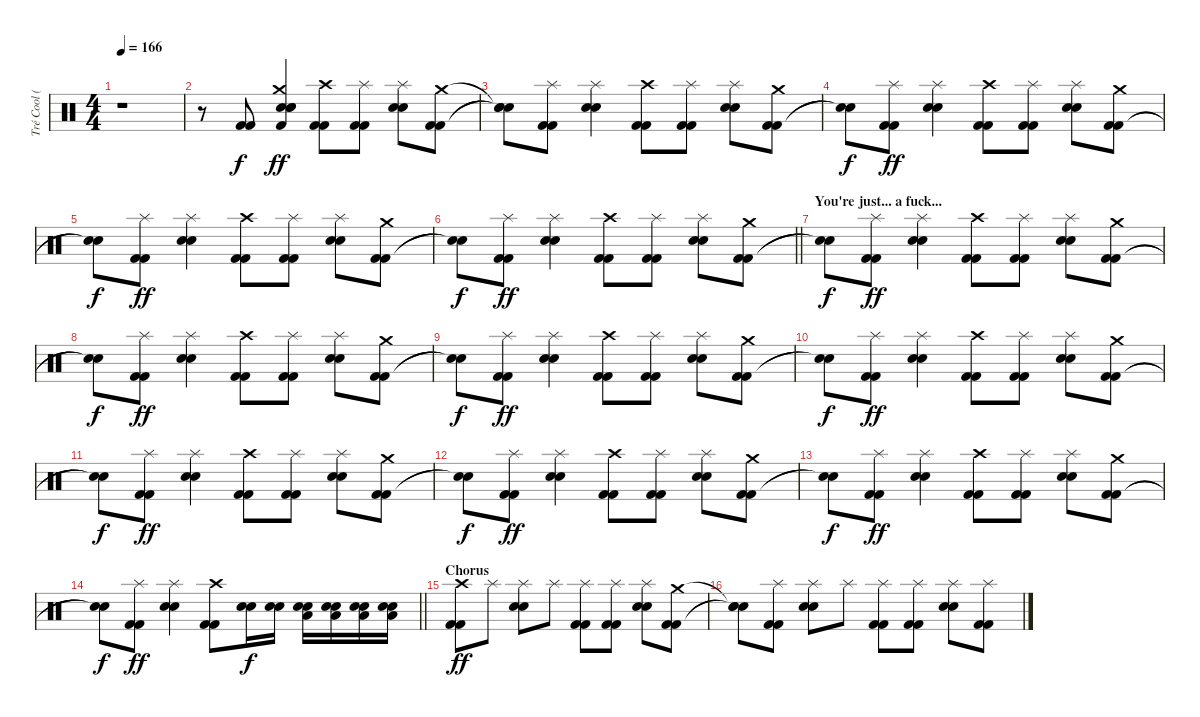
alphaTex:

\track ("Tré Cool (Drums)" "Tré Cool (") {instrument percussion}
\staff {score}
\articulation defaults
\ts (4 4)
\tempo 166
\clef neutral
\ks c
r.1{dy f} |
r.8 ("Kick (hit) 2" "Kick (hit) 2").8 ("Snare (hit) 2" "Snare (hit) 2" "Kick (hit) 2" "Crash medium (hit)" "Metronome (bell)").4{dy ff} ("Kick (hit) 2" "Kick (hit) 2" "Crash high (hit)").8 ("Kick (hit) 2" "Kick (hit) 2" "Splash (hit)").8 ("Snare (hit) 2" "Snare (hit) 2" "Splash (hit)").8 ("Kick (hit) 2" "Kick (hit) 2" "Crash medium (hit)").8 |
("Snare (hit)"{t} "Snare (hit)"{t} "Snare (hit)"{t}).8 ("Kick (hit) 2" "Kick (hit) 2" "Splash (hit)").8 ("Snare (hit) 2" "Snare (hit) 2" "Splash (hit)").4 ("Kick (hit) 2" "Kick (hit) 2" "Crash high (hit)").8 ("Kick (hit) 2" "Kick (hit) 2" "Splash (hit)").8 ("Snare (hit) 2" "Snare (hit) 2" "Splash (hit)").8 ("Kick (hit) 2" "Kick (hit) 2" "Crash medium (hit)").8 |
("Snare (hit)"{t} "Snare (hit)"{t}).8{dy f} ("Kick (hit) 2" "Kick (hit) 2" "Splash (hit)").8{dy ff} ("Snare (hit) 2" "Snare (hit) 2" "Splash (hit)").4 ("Kick (hit) 2" "Kick (hit) 2" "Crash high (hit)").8 ("Kick (hit) 2" "Kick (hit) 2" "Splash (hit)").8 ("Snare (hit) 2" "Snare (hit) 2" "Splash (hit)").8 ("Kick (hit) 2" "Kick (hit) 2" "Crash medium (hit)").8 |
("Snare (hit)"{t} "Snare (hit)"{t}).8{dy f} ("Kick (hit) 2" "Kick (hit) 2" "Splash (hit)").8{dy ff} ("Snare (hit) 2" "Snare (hit) 2" "Splash (hit)").4 ("Kick (hit) 2" "Kick (hit) 2" "Crash high (hit)").8 ("Kick (hit) 2" "Kick (hit) 2" "Splash (hit)").8 ("Snare (hit) 2" "Snare (hit) 2" "Splash (hit)").8 ("Kick (hit) 2" "Kick (hit) 2" "Crash medium (hit)").8 |
\barLineRight lightlight
("Snare (hit)"{t} "Snare (hit)"{t}).8{dy f} ("Kick (hit) 2" "Kick (hit) 2" "Splash (hit)").8{dy ff} ("Snare (hit) 2" "Snare (hit) 2" "Splash (hit)").4 ("Kick (hit) 2" "Kick (hit) 2" "Crash high (hit)").8 ("Kick (hit) 2" "Kick (hit) 2" "Splash (hit)").8 ("Snare (hit) 2" "Snare (hit) 2" "Splash (hit)").8 ("Kick (hit) 2" "Kick (hit) 2" "Crash medium (hit)").8 |
\section ("" "You're just... a fuck...")
("Snare (hit)"{t} "Snare (hit)"{t}).8{dy f} ("Kick (hit) 2" "Kick (hit) 2" "Splash (hit)").8{dy ff} ("Snare (hit) 2" "Snare (hit) 2" "Splash (hit)").4 ("Kick (hit) 2" "Kick (hit) 2" "Crash high (hit)").8 ("Kick (hit) 2" "Kick (hit) 2" "Splash (hit)").8 ("Snare (hit) 2" "Snare (hit) 2" "Splash (hit)").8 ("Kick (hit) 2" "Kick (hit) 2" "Crash medium (hit)").8 |
("Snare (hit)"{t} "Snare (hit)"{t}).8{dy f} ("Kick (hit) 2" "Kick (hit) 2" "Splash (hit)").8{dy ff} ("Snare (hit) 2" "Snare (hit) 2" "Splash (hit)").4 ("Kick (hit) 2" "Kick (hit) 2" "Crash high (hit)").8 ("Kick (hit) 2" "Kick (hit) 2" "Splash (hit)").8 ("Snare (hit) 2" "Snare (hit) 2" "Splash (hit)").8 ("Kick (hit) 2" "Kick (hit) 2" "Crash medium (hit)").8 |
("Snare (hit)"{t} "Snare (hit)"{t}).8{dy f} ("Kick (hit) 2" "Kick (hit) 2" "Splash (hit)").8{dy ff} ("Snare (hit) 2" "Snare (hit) 2" "Splash (hit)").4 ("Kick (hit) 2" "Kick (hit) 2" "Crash high (hit)").8 ("Kick (hit) 2" "Kick (hit) 2" "Splash (hit)").8 ("Snare (hit) 2" "Snare (hit) 2" "Splash (hit)").8 ("Kick (hit) 2" "Kick (hit) 2" "Crash medium (hit)").8 |
("Snare (hit)"{t} "Snare (hit)"{t}).8{dy f} ("Kick (hit) 2" "Kick (hit) 2" "Splash (hit)").8{dy ff} ("Snare (hit) 2" "Snare (hit) 2" "Splash (hit)").4 ("Kick (hit) 2" "Kick (hit) 2" "Crash high (hit)").8 ("Kick (hit) 2" "Kick (hit) 2" "Splash (hit)").8 ("Snare (hit) 2" "Snare (hit) 2" "Splash (hit)").8 ("Kick (hit) 2" "Kick (hit) 2" "Crash medium (hit)").8 |
("Snare (hit)"{t} "Snare (hit)"{t}).8{dy f} ("Kick (hit) 2" "Kick (hit) 2" "Splash (hit)").8{dy ff} ("Snare (hit) 2" "Snare (hit) 2" "Splash (hit)").4 ("Kick (hit) 2" "Kick (hit) 2" "Crash high (hit)").8 ("Kick (hit) 2" "Kick (hit) 2" "Splash (hit)").8 ("Snare (hit) 2" "Snare (hit) 2" "Splash (hit)").8 ("Kick (hit) 2" "Kick (hit) 2" "Crash medium (hit)").8 |
("Snare (hit)"{t} "Snare (hit)"{t}).8{dy f} ("Kick (hit) 2" "Kick (hit) 2" "Splash (hit)").8{dy ff} ("Snare (hit) 2" "Snare (hit) 2" "Splash (hit)").4 ("Kick (hit) 2" "Kick (hit) 2" "Crash high (hit)").8 ("Kick (hit) 2" "Kick (hit) 2" "Splash (hit)").8 ("Snare (hit) 2" "Snare (hit) 2" "Splash (hit)").8 ("Kick (hit) 2" "Kick (hit) 2" "Crash medium (hit)").8 |
("Snare (hit)"{t} "Snare (hit)"{t}).8{dy f} ("Kick (hit) 2" "Kick (hit) 2" "Splash (hit)").8{dy ff} ("Snare (hit) 2" "Snare (hit) 2" "Splash (hit)").4 ("Kick (hit) 2" "Kick (hit) 2" "Crash high (hit)").8 ("Kick (hit) 2" "Kick (hit) 2" "Splash (hit)").8 ("Snare (hit) 2" "Snare (hit) 2" "Splash (hit)").8 ("Kick (hit) 2" "Kick (hit) 2" "Crash medium (hit)").8 |
\barLineRight lightlight
("Snare (hit)"{t} "Snare (hit)"{t}).8{dy f} ("Kick (hit) 2" "Kick (hit) 2" "Splash (hit)").8{dy ff} ("Snare (hit) 2" "Snare (hit) 2" "Splash (hit)").4 ("Kick (hit) 2" "Kick (hit) 2" "Crash high (hit)").8 ("Snare (hit) 2" "Snare (hit) 2").16{dy f} ("Snare (hit) 2" "Snare (hit) 2").16 ("Snare (hit) 2" "Snare (hit) 2" "Low Floor Tom (hit)").16 ("Snare (hit) 2" "Snare (hit) 2" "Low Floor Tom (hit)").16 ("Snare (hit) 2" "Snare (hit) 2" "Low Floor Tom (hit)").16 ("Snare (hit) 2" "Snare (hit) 2" "Low Floor Tom (hit)").16 |
\section ("" "Chorus")
("Kick (hit) 2" "Kick (hit) 2" "Crash high (hit)").8{dy ff} "Splash (hit)".8 ("Snare (hit) 2" "Snare (hit) 2" "Splash (hit)").8 "Splash (hit)".8 ("Kick (hit) 2" "Kick (hit) 2" "Splash (hit)").8 ("Kick (hit) 2" "Kick (hit) 2" "Splash (hit)").8 ("Snare (hit) 2" "Snare (hit) 2" "Splash (hit)").8 ("Kick (hit) 2" "Kick (hit) 2" "Crash medium (hit)").8 |
("Snare (hit)"{t} "Snare (hit)"{t} "Snare (hit)"{t}).8 ("Kick (hit) 2" "Kick (hit) 2" "Splash (hit)").8 ("Snare (hit) 2" "Snare (hit) 2" "Splash (hit)").8 "Splash (hit)".8 ("Kick (hit) 2" "Kick (hit) 2" "Splash (hit)").8 ("Kick (hit) 2" "Kick (hit) 2" "Splash (hit)").8 ("Snare (hit) 2" "Snare (hit) 2" "Splash (hit)").8 ("Kick (hit) 2" "Kick (hit) 2" "Splash (hit)").8
